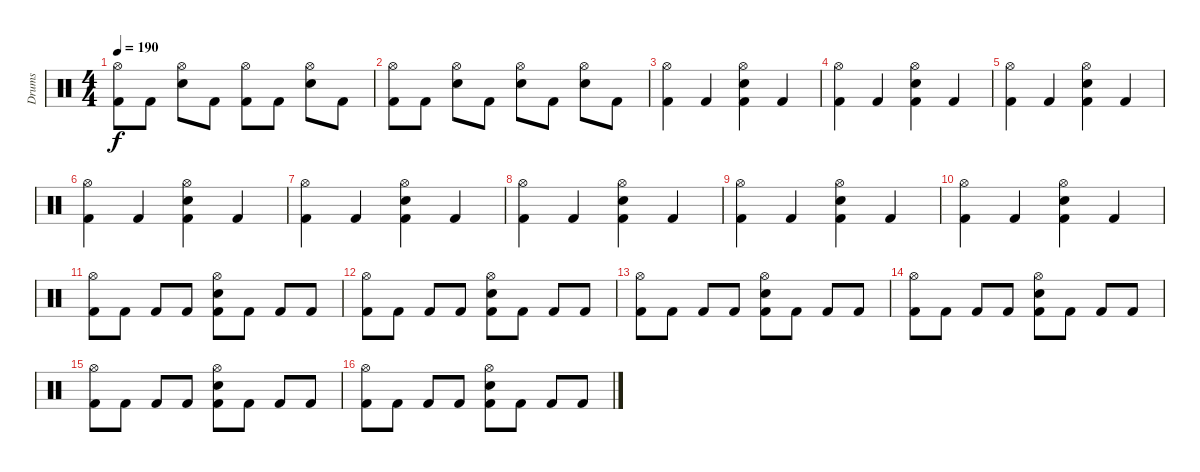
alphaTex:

\track ("Drums" "Drums") {instrument percussion}
\staff {score}
\articulation defaults
\ts (4 4)
\tempo 190
\clef neutral
\ks c
("Hi-Hat (open)" "Kick (hit) 2").8{dy f} "Kick (hit) 2".8 ("Hi-Hat (open)" "Snare (hit) 2").8 "Kick (hit) 2".8 ("Hi-Hat (open)" "Kick (hit) 2").8 "Kick (hit) 2".8 ("Hi-Hat (open)" "Snare (hit) 2").8 "Kick (hit) 2".8 |
("Hi-Hat (open)" "Kick (hit) 2").8 "Kick (hit) 2".8 ("Hi-Hat (open)" "Snare (hit) 2").8 "Kick (hit) 2".8 ("Hi-Hat (open)" "Snare (hit) 2").8 "Kick (hit) 2".8 ("Hi-Hat (open)" "Snare (hit) 2").8 "Kick (hit) 2".8 |
("Hi-Hat (open)" "Kick (hit) 2").4 "Kick (hit) 2".4 ("Hi-Hat (open)" "Kick (hit) 2" "Snare (hit) 2").4 "Kick (hit) 2".4 |
("Hi-Hat (open)" "Kick (hit) 2").4 "Kick (hit) 2".4 ("Hi-Hat (open)" "Kick (hit) 2" "Snare (hit) 2").4 "Kick (hit) 2".4 |
("Hi-Hat (open)" "Kick (hit) 2").4 "Kick (hit) 2".4 ("Hi-Hat (open)" "Kick (hit) 2" "Snare (hit) 2").4 "Kick (hit) 2".4 |
("Hi-Hat (open)" "Kick (hit) 2").4 "Kick (hit) 2".4 ("Hi-Hat (open)" "Kick (hit) 2" "Snare (hit) 2").4 "Kick (hit) 2".4 |
("Hi-Hat (open)" "Kick (hit) 2").4 "Kick (hit) 2".4 ("Hi-Hat (open)" "Kick (hit) 2" "Snare (hit) 2").4 "Kick (hit) 2".4 |
("Hi-Hat (open)" "Kick (hit) 2").4 "Kick (hit) 2".4 ("Hi-Hat (open)" "Kick (hit) 2" "Snare (hit) 2").4 "Kick (hit) 2".4 |
("Hi-Hat (open)" "Kick (hit) 2").4 "Kick (hit) 2".4 ("Hi-Hat (open)" "Kick (hit) 2" "Snare (hit) 2").4 "Kick (hit) 2".4 |
("Hi-Hat (open)" "Kick (hit) 2").4 "Kick (hit) 2".4 ("Hi-Hat (open)" "Kick (hit) 2" "Snare (hit) 2").4 "Kick (hit) 2".4 |
("Hi-Hat (open)" "Kick (hit) 2").8 "Kick (hit) 2".8 "Kick (hit) 2".8 "Kick (hit) 2".8 ("Hi-Hat (open)" "Kick (hit) 2" "Snare (hit) 2").8 "Kick (hit) 2".8 "Kick (hit) 2".8 "Kick (hit) 2".8 |
("Hi-Hat (open)" "Kick (hit) 2").8 "Kick (hit) 2".8 "Kick (hit) 2".8 "Kick (hit) 2".8 ("Hi-Hat (open)" "Kick (hit) 2" "Snare (hit) 2").8 "Kick (hit) 2".8 "Kick (hit) 2".8 "Kick (hit) 2".8 |
("Hi-Hat (open)" "Kick (hit) 2").8 "Kick (hit) 2".8 "Kick (hit) 2".8 "Kick (hit) 2".8 ("Hi-Hat (open)" "Kick (hit) 2" "Snare (hit) 2").8 "Kick (hit) 2".8 "Kick (hit) 2".8 "Kick (hit) 2".8 |
("Hi-Hat (open)" "Kick (hit) 2").8 "Kick (hit) 2".8 "Kick (hit) 2".8 "Kick (hit) 2".8 ("Hi-Hat (open)" "Kick (hit) 2" "Snare (hit) 2").8 "Kick (hit) 2".8 "Kick (hit) 2".8 "Kick (hit) 2".8 |
("Hi-Hat (open)" "Kick (hit) 2").8 "Kick (hit) 2".8 "Kick (hit) 2".8 "Kick (hit) 2".8 ("Hi-Hat (open)" "Kick (hit) 2" "Snare (hit) 2").8 "Kick (hit) 2".8 "Kick (hit) 2".8 "Kick (hit) 2".8 |
("Hi-Hat (open)" "Kick (hit) 2").8 "Kick (hit) 2".8 "Kick (hit) 2".8 "Kick (hit) 2".8 ("Hi-Hat (open)" "Kick (hit) 2" "Snare (hit) 2").8 "Kick (hit) 2".8 "Kick (hit) 2".8 "Kick (hit) 2".8
